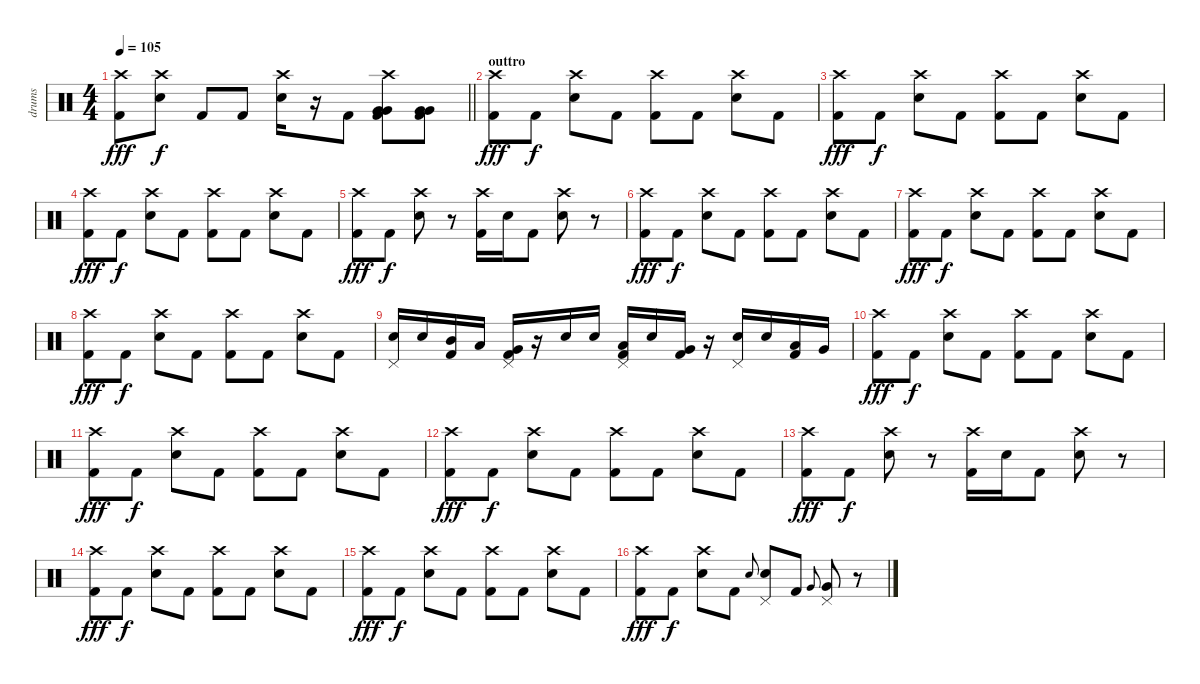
\track ("drums" "drums") {instrument percussion}
\staff {score}
\articulation defaults
\ts (4 4)
\tempo 105
\clef neutral
\barLineRight lightlight
\ks c
("Crash high (hit)" "Kick (hit) 2").8{dy fff} ("Crash high (hit)" "Electric Snare (hit)").8{dy f} "Kick (hit) 2".8 "Kick (hit) 2".8 ("Crash high (hit)" "Electric Snare (hit)").16 r.16 "Kick (hit) 2".8 ("Crash high (hit)" "Very Low Tom (hit)" "Very Low Tom (hit)" "Kick (hit) 2").8 ("Very Low Tom (hit)" "Very Low Tom (hit)" "Kick (hit) 2").8 |
\section ("" "outtro")
("Crash high (hit)" "Kick (hit) 2").8{dy fff} "Kick (hit) 2".8{dy f} ("Crash high (hit)" "Electric Snare (hit)").8 "Kick (hit) 2".8 ("Crash high (hit)" "Kick (hit) 2").8 "Kick (hit) 2".8 ("Crash high (hit)" "Electric Snare (hit)").8 "Kick (hit) 2".8 |
("Crash high (hit)" "Kick (hit) 2").8{dy fff} "Kick (hit) 2".8{dy f} ("Crash high (hit)" "Electric Snare (hit)").8 "Kick (hit) 2".8 ("Crash high (hit)" "Kick (hit) 2").8 "Kick (hit) 2".8 ("Crash high (hit)" "Electric Snare (hit)").8 "Kick (hit) 2".8 |
("Crash high (hit)" "Kick (hit) 2").8{dy fff} "Kick (hit) 2".8{dy f} ("Crash high (hit)" "Electric Snare (hit)").8 "Kick (hit) 2".8 ("Crash high (hit)" "Kick (hit) 2").8 "Kick (hit) 2".8 ("Crash high (hit)" "Electric Snare (hit)").8 "Kick (hit) 2".8 |
("Crash high (hit)" "Kick (hit) 2").8{dy fff} "Kick (hit) 2".8{dy f} ("Crash high (hit)" "Electric Snare (hit)").8 r.8 ("Crash high (hit)" "Kick (hit) 2").16 "Electric Snare (hit)".16 "Kick (hit) 2".8 ("Crash high (hit)" "Electric Snare (hit)").8 r.8 |
("Crash high (hit)" "Kick (hit) 2").8{dy fff} "Kick (hit) 2".8{dy f} ("Crash high (hit)" "Electric Snare (hit)").8 "Kick (hit) 2".8 ("Crash high (hit)" "Kick (hit) 2").8 "Kick (hit) 2".8 ("Crash high (hit)" "Electric Snare (hit)").8 "Kick (hit) 2".8 |
("Crash high (hit)" "Kick (hit) 2").8{dy fff} "Kick (hit) 2".8{dy f} ("Crash high (hit)" "Electric Snare (hit)").8 "Kick (hit) 2".8 ("Crash high (hit)" "Kick (hit) 2").8 "Kick (hit) 2".8 ("Crash high (hit)" "Electric Snare (hit)").8 "Kick (hit) 2".8 |
("Crash high (hit)" "Kick (hit) 2").8{dy fff} "Kick (hit) 2".8{dy f} ("Crash high (hit)" "Electric Snare (hit)").8 "Kick (hit) 2".8 ("Crash high (hit)" "Kick (hit) 2").8 "Kick (hit) 2".8 ("Crash high (hit)" "Electric Snare (hit)").8 "Kick (hit) 2".8 |
("Pedal Hi-Hat (hit)" "Electric Snare (hit)").16 "Electric Snare (hit)".16 ("Mid Tom (hit)" "Kick (hit) 2").16 "Low Tom (hit)".16 ("Pedal Hi-Hat (hit)" "Very Low Tom (hit)" "Kick (hit) 2").16 r.16 "Electric Snare (hit)".16 "Electric Snare (hit)".16 ("Pedal Hi-Hat (hit)" "Low Tom (hit)" "Kick (hit) 2").16 "Electric Snare (hit)".16 ("Very Low Tom (hit)" "Kick (hit) 2").16 r.16 ("Pedal Hi-Hat (hit)" "Electric Snare (hit)").16 "Electric Snare (hit)".16 ("Low Tom (hit)" "Kick (hit) 2").16 "Very Low Tom (hit)".16 |
("Crash high (hit)" "Kick (hit) 2").8{dy fff} "Kick (hit) 2".8{dy f} ("Crash high (hit)" "Electric Snare (hit)").8 "Kick (hit) 2".8 ("Crash high (hit)" "Kick (hit) 2").8 "Kick (hit) 2".8 ("Crash high (hit)" "Electric Snare (hit)").8 "Kick (hit) 2".8 |
("Crash high (hit)" "Kick (hit) 2").8{dy fff} "Kick (hit) 2".8{dy f} ("Crash high (hit)" "Electric Snare (hit)").8 "Kick (hit) 2".8 ("Crash high (hit)" "Kick (hit) 2").8 "Kick (hit) 2".8 ("Crash high (hit)" "Electric Snare (hit)").8 "Kick (hit) 2".8 |
("Crash high (hit)" "Kick (hit) 2").8{dy fff} "Kick (hit) 2".8{dy f} ("Crash high (hit)" "Electric Snare (hit)").8 "Kick (hit) 2".8 ("Crash high (hit)" "Kick (hit) 2").8 "Kick (hit) 2".8 ("Crash high (hit)" "Electric Snare (hit)").8 "Kick (hit) 2".8 |
("Crash high (hit)" "Kick (hit) 2").8{dy fff} "Kick (hit) 2".8{dy f} ("Crash high (hit)" "Electric Snare (hit)").8 r.8 ("Crash high (hit)" "Kick (hit) 2").16 "Electric Snare (hit)".16 "Kick (hit) 2".8 ("Crash high (hit)" "Electric Snare (hit)").8 r.8 |
("Crash high (hit)" "Kick (hit) 2").8{dy fff} "Kick (hit) 2".8{dy f} ("Crash high (hit)" "Electric Snare (hit)").8 "Kick (hit) 2".8 ("Crash high (hit)" "Kick (hit) 2").8 "Kick (hit) 2".8 ("Crash high (hit)" "Electric Snare (hit)").8 "Kick (hit) 2".8 |
("Crash high (hit)" "Kick (hit) 2").8{dy fff} "Kick (hit) 2".8{dy f} ("Crash high (hit)" "Electric Snare (hit)").8 "Kick (hit) 2".8 ("Crash high (hit)" "Kick (hit) 2").8 "Kick (hit) 2".8 ("Crash high (hit)" "Electric Snare (hit)").8 "Kick (hit) 2".8 |
("Crash high (hit)" "Kick (hit) 2").8{dy fff} "Kick (hit) 2".8{dy f} ("Crash high (hit)" "Electric Snare (hit)").8 "Kick (hit) 2".8 "Electric Snare (hit)".8{gr onbeat} ("Pedal Hi-Hat (hit)" "Electric Snare (hit)").8 "Kick (hit) 2".8 "Very Low Tom (hit)".8{gr onbeat} ("Pedal Hi-Hat (hit)" "Very Low Tom (hit)").8 r.8
